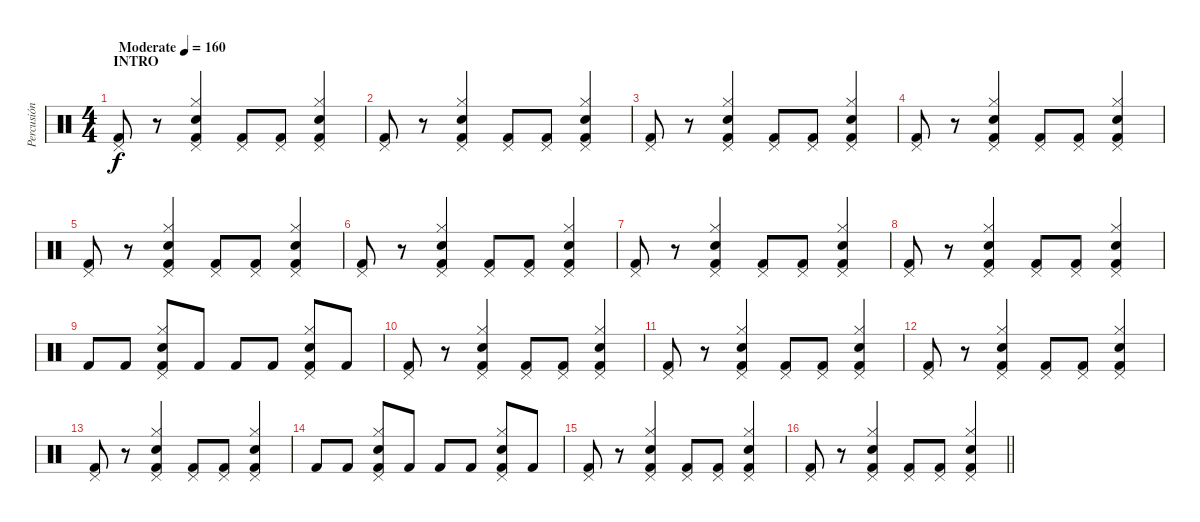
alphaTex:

\track ("Percusión" "Percusión") {instrument percussion}
\staff {score}
\articulation defaults
\ts (4 4)
\section ("" "INTRO")
\tempo (160 "Moderate")
\clef neutral
\ks c
("Pedal Hi-Hat (hit)" "Kick (hit) 2").8{dy f} r.8 ("Hi-Hat (closed)" "Pedal Hi-Hat (hit)" "Electric Snare (hit)" "Kick (hit) 2").4 ("Pedal Hi-Hat (hit)" "Kick (hit) 2").8 ("Pedal Hi-Hat (hit)" "Kick (hit) 2").8 ("Hi-Hat (closed)" "Pedal Hi-Hat (hit)" "Electric Snare (hit)" "Kick (hit) 2").4 |
("Pedal Hi-Hat (hit)" "Kick (hit) 2").8 r.8 ("Hi-Hat (closed)" "Pedal Hi-Hat (hit)" "Electric Snare (hit)" "Kick (hit) 2").4 ("Pedal Hi-Hat (hit)" "Kick (hit) 2").8 ("Pedal Hi-Hat (hit)" "Kick (hit) 2").8 ("Hi-Hat (closed)" "Pedal Hi-Hat (hit)" "Electric Snare (hit)" "Kick (hit) 2").4 |
("Pedal Hi-Hat (hit)" "Kick (hit) 2").8 r.8 ("Hi-Hat (closed)" "Pedal Hi-Hat (hit)" "Electric Snare (hit)" "Kick (hit) 2").4 ("Pedal Hi-Hat (hit)" "Kick (hit) 2").8 ("Pedal Hi-Hat (hit)" "Kick (hit) 2").8 ("Hi-Hat (closed)" "Pedal Hi-Hat (hit)" "Electric Snare (hit)" "Kick (hit) 2").4 |
("Pedal Hi-Hat (hit)" "Kick (hit) 2").8 r.8 ("Hi-Hat (closed)" "Pedal Hi-Hat (hit)" "Electric Snare (hit)" "Kick (hit) 2").4 ("Pedal Hi-Hat (hit)" "Kick (hit) 2").8 ("Pedal Hi-Hat (hit)" "Kick (hit) 2").8 ("Hi-Hat (closed)" "Pedal Hi-Hat (hit)" "Electric Snare (hit)" "Kick (hit) 2").4 |
("Pedal Hi-Hat (hit)" "Kick (hit) 2").8 r.8 ("Hi-Hat (closed)" "Pedal Hi-Hat (hit)" "Electric Snare (hit)" "Kick (hit) 2").4 ("Pedal Hi-Hat (hit)" "Kick (hit) 2").8 ("Pedal Hi-Hat (hit)" "Kick (hit) 2").8 ("Hi-Hat (closed)" "Pedal Hi-Hat (hit)" "Electric Snare (hit)" "Kick (hit) 2").4 |
("Pedal Hi-Hat (hit)" "Kick (hit) 2").8 r.8 ("Hi-Hat (closed)" "Pedal Hi-Hat (hit)" "Electric Snare (hit)" "Kick (hit) 2").4 ("Pedal Hi-Hat (hit)" "Kick (hit) 2").8 ("Pedal Hi-Hat (hit)" "Kick (hit) 2").8 ("Hi-Hat (closed)" "Pedal Hi-Hat (hit)" "Electric Snare (hit)" "Kick (hit) 2").4 |
("Pedal Hi-Hat (hit)" "Kick (hit) 2").8 r.8 ("Hi-Hat (closed)" "Pedal Hi-Hat (hit)" "Electric Snare (hit)" "Kick (hit) 2").4 ("Pedal Hi-Hat (hit)" "Kick (hit) 2").8 ("Pedal Hi-Hat (hit)" "Kick (hit) 2").8 ("Hi-Hat (closed)" "Pedal Hi-Hat (hit)" "Electric Snare (hit)" "Kick (hit) 2").4 |
("Pedal Hi-Hat (hit)" "Kick (hit) 2").8 r.8 ("Hi-Hat (closed)" "Pedal Hi-Hat (hit)" "Electric Snare (hit)" "Kick (hit) 2").4 ("Pedal Hi-Hat (hit)" "Kick (hit) 2").8 ("Pedal Hi-Hat (hit)" "Kick (hit) 2").8 ("Hi-Hat (closed)" "Pedal Hi-Hat (hit)" "Electric Snare (hit)" "Kick (hit) 2").4 |
"Kick (hit) 2".8 "Kick (hit) 2".8 ("Hi-Hat (closed)" "Pedal Hi-Hat (hit)" "Electric Snare (hit)" "Kick (hit) 2").8 "Kick (hit) 2".8 "Kick (hit) 2".8 "Kick (hit) 2".8 ("Hi-Hat (closed)" "Pedal Hi-Hat (hit)" "Electric Snare (hit)" "Kick (hit) 2").8 "Kick (hit) 2".8 |
("Pedal Hi-Hat (hit)" "Kick (hit) 2").8 r.8 ("Hi-Hat (closed)" "Pedal Hi-Hat (hit)" "Electric Snare (hit)" "Kick (hit) 2").4 ("Pedal Hi-Hat (hit)" "Kick (hit) 2").8 ("Pedal Hi-Hat (hit)" "Kick (hit) 2").8 ("Hi-Hat (closed)" "Pedal Hi-Hat (hit)" "Electric Snare (hit)" "Kick (hit) 2").4 |
("Pedal Hi-Hat (hit)" "Kick (hit) 2").8 r.8 ("Hi-Hat (closed)" "Pedal Hi-Hat (hit)" "Electric Snare (hit)" "Kick (hit) 2").4 ("Pedal Hi-Hat (hit)" "Kick (hit) 2").8 ("Pedal Hi-Hat (hit)" "Kick (hit) 2").8 ("Hi-Hat (closed)" "Pedal Hi-Hat (hit)" "Electric Snare (hit)" "Kick (hit) 2").4 |
("Pedal Hi-Hat (hit)" "Kick (hit) 2").8 r.8 ("Hi-Hat (closed)" "Pedal Hi-Hat (hit)" "Electric Snare (hit)" "Kick (hit) 2").4 ("Pedal Hi-Hat (hit)" "Kick (hit) 2").8 ("Pedal Hi-Hat (hit)" "Kick (hit) 2").8 ("Hi-Hat (closed)" "Pedal Hi-Hat (hit)" "Electric Snare (hit)" "Kick (hit) 2").4 |
("Pedal Hi-Hat (hit)" "Kick (hit) 2").8 r.8 ("Hi-Hat (closed)" "Pedal Hi-Hat (hit)" "Electric Snare (hit)" "Kick (hit) 2").4 ("Pedal Hi-Hat (hit)" "Kick (hit) 2").8 ("Pedal Hi-Hat (hit)" "Kick (hit) 2").8 ("Hi-Hat (closed)" "Pedal Hi-Hat (hit)" "Electric Snare (hit)" "Kick (hit) 2").4 |
"Kick (hit) 2".8 "Kick (hit) 2".8 ("Hi-Hat (closed)" "Pedal Hi-Hat (hit)" "Electric Snare (hit)" "Kick (hit) 2").8 "Kick (hit) 2".8 "Kick (hit) 2".8 "Kick (hit) 2".8 ("Hi-Hat (closed)" "Pedal Hi-Hat (hit)" "Electric Snare (hit)" "Kick (hit) 2").8 "Kick (hit) 2".8 |
("Pedal Hi-Hat (hit)" "Kick (hit) 2").8 r.8 ("Hi-Hat (closed)" "Pedal Hi-Hat (hit)" "Electric Snare (hit)" "Kick (hit) 2").4 ("Pedal Hi-Hat (hit)" "Kick (hit) 2").8 ("Pedal Hi-Hat (hit)" "Kick (hit) 2").8 ("Hi-Hat (closed)" "Pedal Hi-Hat (hit)" "Electric Snare (hit)" "Kick (hit) 2").4 |
\barLineRight lightlight
("Pedal Hi-Hat (hit)" "Kick (hit) 2").8 r.8 ("Hi-Hat (closed)" "Pedal Hi-Hat (hit)" "Electric Snare (hit)" "Kick (hit) 2").4 ("Pedal Hi-Hat (hit)" "Kick (hit) 2").8 ("Pedal Hi-Hat (hit)" "Kick (hit) 2").8 ("Hi-Hat (closed)" "Pedal Hi-Hat (hit)" "Electric Snare (hit)" "Kick (hit) 2").4
